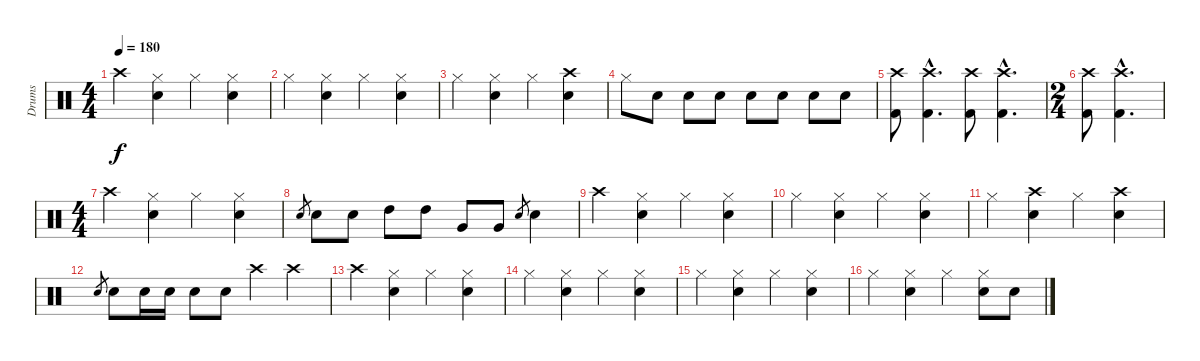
\track ("Drums" "Drums") {instrument percussion}
\staff {score}
\articulation defaults
\ts (4 4)
\tempo 180
\clef neutral
\ks c "Crash high (hit)".4{dy f}
("Hi-Hat (closed)" "Snare (hit) 2").4 "Hi-Hat (closed)".4 ("Hi-Hat (closed)" "Snare (hit) 2").4 |
"Hi-Hat (closed)".4 ("Hi-Hat (closed)" "Snare (hit) 2").4 "Hi-Hat (closed)".4 ("Hi-Hat (closed)" "Snare (hit) 2").4 |
"Hi-Hat (closed)".4 ("Hi-Hat (closed)" "Snare (hit) 2").4 "Hi-Hat (closed)".4 ("Crash high (hit)" "Snare (hit) 2").4 |
"Hi-Hat (closed)".8 "Snare (hit) 2".8 "Snare (hit) 2".8 "Snare (hit) 2".8 "Snare (hit) 2".8 "Snare (hit) 2".8 "Snare (hit) 2".8 "Snare (hit) 2".8 |
("Crash high (hit)" "Kick (hit) 2").8 ("Crash high (hit)"{hac} "Kick (hit) 2"{hac}).4{d} ("Crash high (hit)" "Kick (hit) 2").8 ("Crash high (hit)"{hac} "Kick (hit) 2"{hac}).4{d} |
\ts (2 4)
("Crash high (hit)" "Kick (hit) 2").8 ("Crash high (hit)"{hac} "Kick (hit) 2"{hac}).4{d} |
\ts (4 4)
"Crash high (hit)".4 ("Hi-Hat (closed)" "Snare (hit) 2").4 "Hi-Hat (closed)".4 ("Hi-Hat (closed)" "Snare (hit) 2").4 |
"Snare (hit) 2".8{gr} "Snare (hit) 2".8 "Snare (hit) 2".8 "High Tom (hit)".8 "High Tom (hit)".8 "Very Low Tom (hit)".8 "Very Low Tom (hit)".8 "Snare (hit) 2".8{gr} "Snare (hit) 2".4 |
"Crash high (hit)".4 ("Hi-Hat (closed)" "Snare (hit) 2").4 "Hi-Hat (closed)".4 ("Hi-Hat (closed)" "Snare (hit) 2").4 |
"Hi-Hat (closed)".4 ("Hi-Hat (closed)" "Snare (hit) 2").4 "Hi-Hat (closed)".4 ("Hi-Hat (closed)" "Snare (hit) 2").4 |
"Hi-Hat (closed)".4 ("Crash high (hit)" "Snare (hit) 2").4 "Hi-Hat (closed)".4 ("Crash high (hit)" "Snare (hit) 2").4 |
"Snare (hit) 2".8{gr} "Snare (hit) 2".8 "Snare (hit) 2".16 "Snare (hit) 2".16 "Snare (hit) 2".8 "Snare (hit) 2".8 "Crash high (hit)".4 "Crash high (hit)".4 |
"Crash high (hit)".4 ("Hi-Hat (closed)" "Snare (hit) 2").4 "Hi-Hat (closed)".4 ("Hi-Hat (closed)" "Snare (hit) 2").4 |
"Hi-Hat (closed)".4 ("Hi-Hat (closed)" "Snare (hit) 2").4 "Hi-Hat (closed)".4 ("Hi-Hat (closed)" "Snare (hit) 2").4 |
"Hi-Hat (closed)".4 ("Hi-Hat (closed)" "Snare (hit) 2").4 "Hi-Hat (closed)".4 ("Hi-Hat (closed)" "Snare (hit) 2").4 |
"Hi-Hat (closed)".4 ("Hi-Hat (closed)" "Snare (hit) 2").4 "Hi-Hat (closed)".4 ("Hi-Hat (closed)" "Snare (hit) 2").8 "Snare (hit) 2".8
